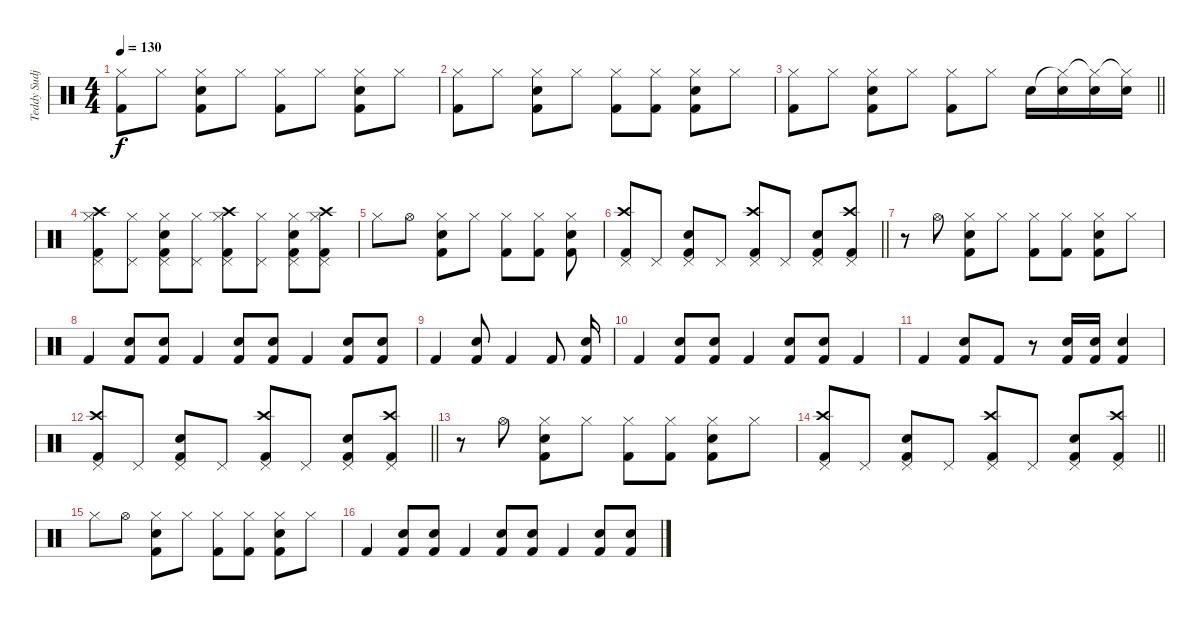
\track ("Teddy Sudjaya (drum)" "Teddy Sudj") {instrument percussion}
\staff {score}
\articulation defaults
\ts (4 4)
\tempo 130
\clef neutral
\ks c
("Hi-Hat (closed)" "Kick (hit) 2").8{dy f} "Hi-Hat (closed)".8 ("Snare (hit) 2" "Hi-Hat (closed)" "Kick (hit) 2").8 "Hi-Hat (closed)".8 ("Hi-Hat (closed)" "Kick (hit) 2").8 "Hi-Hat (closed)".8 ("Snare (hit) 2" "Hi-Hat (closed)" "Kick (hit) 2").8 "Hi-Hat (closed)".8 |
("Hi-Hat (closed)" "Kick (hit) 2").8 "Hi-Hat (closed)".8 ("Snare (hit) 2" "Hi-Hat (closed)" "Kick (hit) 2").8 "Hi-Hat (closed)".8 ("Hi-Hat (closed)" "Kick (hit) 2").8 ("Hi-Hat (closed)" "Kick (hit) 2").8 ("Snare (hit) 2" "Hi-Hat (closed)" "Kick (hit) 2").8 "Hi-Hat (closed)".8 |
\barLineRight lightlight
("Hi-Hat (closed)" "Kick (hit) 2").8 "Hi-Hat (closed)".8 ("Snare (hit) 2" "Hi-Hat (closed)" "Kick (hit) 2").8 "Hi-Hat (closed)".8 ("Hi-Hat (closed)" "Kick (hit) 2").8 "Hi-Hat (closed)".8 "Snare (hit) 2".16 ("Hi-Hat (closed)"{t} "Snare (hit) 2").16 ("Hi-Hat (closed)"{t} "Snare (hit) 2").16 ("Hi-Hat (closed)"{t} "Snare (hit) 2").16 |
("Crash high (hit)" "Pedal Hi-Hat (hit)" "Hi-Hat (closed)" "Kick (hit) 2").8 ("Pedal Hi-Hat (hit)" "Hi-Hat (closed)").8 ("Pedal Hi-Hat (hit)" "Snare (hit) 2" "Hi-Hat (closed)" "Kick (hit) 2").8 ("Pedal Hi-Hat (hit)" "Hi-Hat (closed)").8 ("Crash high (hit)" "Pedal Hi-Hat (hit)" "Hi-Hat (closed)" "Kick (hit) 2").8 ("Pedal Hi-Hat (hit)" "Hi-Hat (closed)").8 ("Pedal Hi-Hat (hit)" "Snare (hit) 2" "Hi-Hat (closed)" "Kick (hit) 2").8 ("Crash high (hit)" "Pedal Hi-Hat (hit)" "Hi-Hat (closed)" "Kick (hit) 2").8 |
"Hi-Hat (closed)".8 "Hi-Hat (open)".8 ("Snare (hit) 2" "Hi-Hat (closed)" "Kick (hit) 2").8 "Hi-Hat (closed)".8 ("Hi-Hat (closed)" "Kick (hit) 2").8 ("Hi-Hat (closed)" "Kick (hit) 2").8 ("Snare (hit) 2" "Hi-Hat (closed)" "Kick (hit) 2").8 |
\barLineRight lightlight
("Crash high (hit)" "Pedal Hi-Hat (hit)" "Kick (hit) 2").8 "Pedal Hi-Hat (hit)".8 ("Pedal Hi-Hat (hit)" "Snare (hit) 2" "Kick (hit) 2").8 "Pedal Hi-Hat (hit)".8 ("Crash high (hit)" "Pedal Hi-Hat (hit)" "Kick (hit) 2").8 "Pedal Hi-Hat (hit)".8 ("Pedal Hi-Hat (hit)" "Snare (hit) 2" "Kick (hit) 2").8 ("Crash high (hit)" "Pedal Hi-Hat (hit)" "Kick (hit) 2").8 |
r.8 "Hi-Hat (open)".8 ("Hi-Hat (closed)" "Snare (hit) 2" "Kick (hit) 2").8 "Hi-Hat (closed)".8 ("Hi-Hat (closed)" "Kick (hit) 2").8 ("Hi-Hat (closed)" "Kick (hit) 2").8 ("Hi-Hat (closed)" "Snare (hit) 2" "Kick (hit) 2").8 "Hi-Hat (closed)".8 |
"Kick (hit) 2".4 ("Snare (hit) 2" "Kick (hit) 2").8 ("Snare (hit) 2" "Kick (hit) 2").8 "Kick (hit) 2".4 ("Snare (hit) 2" "Kick (hit) 2").8 ("Snare (hit) 2" "Kick (hit) 2").8 "Kick (hit) 2".4 ("Snare (hit) 2" "Kick (hit) 2").8 ("Snare (hit) 2" "Kick (hit) 2").8 |
"Kick (hit) 2".4 ("Snare (hit) 2" "Kick (hit) 2").8 "Kick (hit) 2".4 "Kick (hit) 2".8 ("Snare (hit) 2" "Kick (hit) 2").16 |
"Kick (hit) 2".4 ("Snare (hit) 2" "Kick (hit) 2").8 ("Snare (hit) 2" "Kick (hit) 2").8 "Kick (hit) 2".4 ("Snare (hit) 2" "Kick (hit) 2").8 ("Snare (hit) 2" "Kick (hit) 2").8 "Kick (hit) 2".4 |
"Kick (hit) 2".4 ("Snare (hit) 2" "Kick (hit) 2").8 "Kick (hit) 2".8 r.8 ("Snare (hit) 2" "Kick (hit) 2").16 ("Snare (hit) 2" "Kick (hit) 2").16 ("Snare (hit) 2" "Kick (hit) 2").4 |
\barLineRight lightlight
("Crash high (hit)" "Pedal Hi-Hat (hit)" "Kick (hit) 2").8 "Pedal Hi-Hat (hit)".8 ("Pedal Hi-Hat (hit)" "Snare (hit) 2" "Kick (hit) 2").8 "Pedal Hi-Hat (hit)".8 ("Crash high (hit)" "Pedal Hi-Hat (hit)" "Kick (hit) 2").8 "Pedal Hi-Hat (hit)".8 ("Pedal Hi-Hat (hit)" "Snare (hit) 2" "Kick (hit) 2").8 ("Crash high (hit)" "Pedal Hi-Hat (hit)" "Kick (hit) 2").8 |
r.8 "Hi-Hat (open)".8 ("Hi-Hat (closed)" "Snare (hit) 2" "Kick (hit) 2").8 "Hi-Hat (closed)".8 ("Hi-Hat (closed)" "Kick (hit) 2").8 ("Hi-Hat (closed)" "Kick (hit) 2").8 ("Hi-Hat (closed)" "Snare (hit) 2" "Kick (hit) 2").8 "Hi-Hat (closed)".8 |
\barLineRight lightlight
("Crash high (hit)" "Pedal Hi-Hat (hit)" "Kick (hit) 2").8 "Pedal Hi-Hat (hit)".8 ("Pedal Hi-Hat (hit)" "Snare (hit) 2" "Kick (hit) 2").8 "Pedal Hi-Hat (hit)".8 ("Crash high (hit)" "Pedal Hi-Hat (hit)" "Kick (hit) 2").8 "Pedal Hi-Hat (hit)".8 ("Pedal Hi-Hat (hit)" "Snare (hit) 2" "Kick (hit) 2").8 ("Crash high (hit)" "Pedal Hi-Hat (hit)" "Kick (hit) 2").8 |
"Hi-Hat (closed)".8 "Hi-Hat (open)".8 ("Hi-Hat (closed)" "Snare (hit) 2" "Kick (hit) 2").8 "Hi-Hat (closed)".8 ("Hi-Hat (closed)" "Kick (hit) 2").8 ("Hi-Hat (closed)" "Kick (hit) 2").8 ("Hi-Hat (closed)" "Snare (hit) 2" "Kick (hit) 2").8 "Hi-Hat (closed)".8 |
"Kick (hit) 2".4 ("Snare (hit) 2" "Kick (hit) 2").8 ("Snare (hit) 2" "Kick (hit) 2").8 "Kick (hit) 2".4 ("Snare (hit) 2" "Kick (hit) 2").8 ("Snare (hit) 2" "Kick (hit) 2").8 "Kick (hit) 2".4 ("Snare (hit) 2" "Kick (hit) 2").8 ("Snare (hit) 2" "Kick (hit) 2").8
